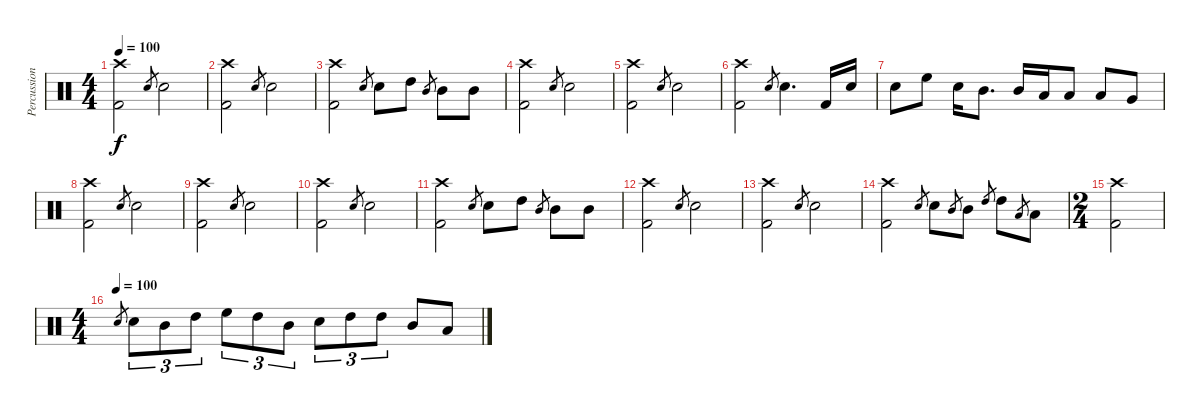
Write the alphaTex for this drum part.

\track ("Percussions" "Percussion") {instrument percussion}
\staff {score}
\articulation defaults
\ts (4 4)
\tempo 100
\clef neutral
\ks c
("Crash high (hit)" "Kick (hit) 2").2{dy f} "Electric Snare (hit)".8{gr} "Electric Snare (hit)".2 |
("Crash high (hit)" "Kick (hit) 2").2 "Electric Snare (hit)".8{gr} "Electric Snare (hit)".2 |
("Crash high (hit)" "Kick (hit) 2").2 "Electric Snare (hit)".8{gr} "Electric Snare (hit)".8 "High Tom (hit)".8 "Mid Tom (hit)".8{gr} "Mid Tom (hit)".8 "Mid Tom (hit)".8 |
("Crash high (hit)" "Kick (hit) 2").2 "Electric Snare (hit)".8{gr} "Electric Snare (hit)".2 |
("Crash high (hit)" "Kick (hit) 2").2 "Electric Snare (hit)".8{gr} "Electric Snare (hit)".2 |
("Crash high (hit)" "Kick (hit) 2").2 "Electric Snare (hit)".8{gr} "Electric Snare (hit)".4{d} "Kick (hit) 2".16 "Electric Snare (hit)".16 |
"Electric Snare (hit)".8 "High Floor Tom (hit)".8 "Electric Snare (hit)".16 "Mid Tom (hit)".8{d} "Mid Tom (hit)".16 "Low Tom (hit)".16 "Low Tom (hit)".8 "Low Tom (hit)".8 "Very Low Tom (hit)".8 |
("Crash high (hit)" "Kick (hit) 2").2 "Electric Snare (hit)".8{gr} "Electric Snare (hit)".2 |
("Crash high (hit)" "Kick (hit) 2").2 "Electric Snare (hit)".8{gr} "Electric Snare (hit)".2 |
("Crash high (hit)" "Kick (hit) 2").2 "Electric Snare (hit)".8{gr} "Electric Snare (hit)".2 |
("Crash high (hit)" "Kick (hit) 2").2 "Electric Snare (hit)".8{gr} "Electric Snare (hit)".8 "High Tom (hit)".8 "Mid Tom (hit)".8{gr} "Mid Tom (hit)".8 "Mid Tom (hit)".8 |
("Crash high (hit)" "Kick (hit) 2").2 "Electric Snare (hit)".8{gr} "Electric Snare (hit)".2 |
("Crash high (hit)" "Kick (hit) 2").2 "Electric Snare (hit)".8{gr} "Electric Snare (hit)".2 |
("Crash high (hit)" "Kick (hit) 2").2 "Electric Snare (hit)".8{gr} "Electric Snare (hit)".8 "Mid Tom (hit)".8{gr} "Mid Tom (hit)".8 "High Tom (hit)".8{gr} "High Tom (hit)".8 "Low Tom (hit)".8{gr} "Low Tom (hit)".8 |
\ts (2 4)
("Crash high (hit)" "Kick (hit) 2").2 |
\ts (4 4)
\tempo (100)
"Electric Snare (hit)".8{gr} "Electric Snare (hit)".8{tu (3 2)} "Mid Tom (hit)".8{tu (3 2)} "High Tom (hit)".8{tu (3 2)} "High Floor Tom (hit)".8{tu (3 2)} "High Tom (hit)".8{tu (3 2)} "Mid Tom (hit)".8{tu (3 2)} "Electric Snare (hit)".8{tu (3 2)} "High Tom (hit)".8{tu (3 2)} "High Tom (hit)".8{tu (3 2)} "Mid Tom (hit)".8 "Low Tom (hit)".8
